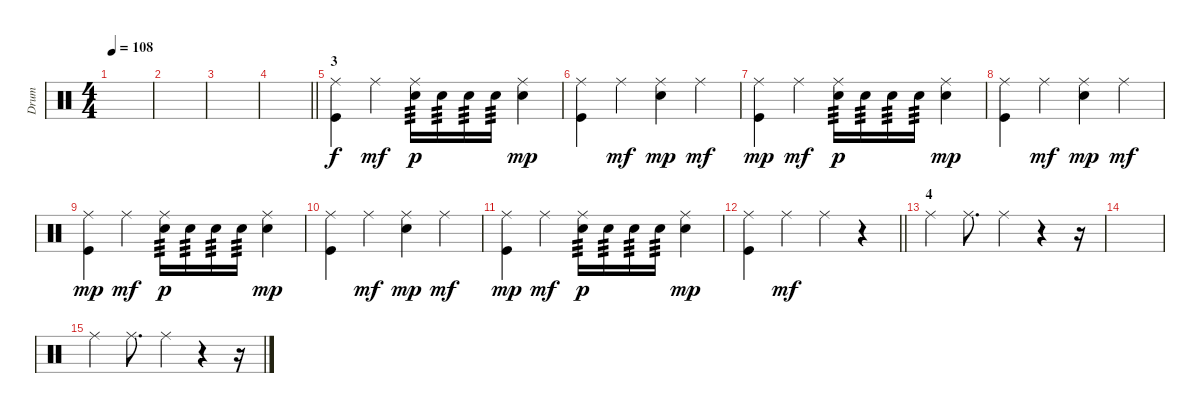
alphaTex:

\track ("Drum" "Drum") {instrument percussion}
\staff {score}
\articulation defaults
\ts (4 4)
\tempo 108
\clef neutral
\ks c
|
|
|
\barLineRight lightlight
|
\section ("" "3")
("Ride (middle)" "Kick (hit)").4 "Ride (middle)".4{dy mf} ("Ride (middle)" "Electric Snare (hit)").16{tp 3 dy p} "Electric Snare (hit)".16{tp 3} "Electric Snare (hit)".16{tp 3} "Electric Snare (hit)".16{tp 3} ("Ride (middle)" "Electric Snare (hit)").4{dy mp} |
("Ride (middle)" "Kick (hit)").4 "Ride (middle)".4{dy mf} ("Ride (middle)" "Electric Snare (hit)").4{dy mp} "Ride (middle)".4{dy mf} |
("Ride (middle)" "Kick (hit)").4{dy mp} "Ride (middle)".4{dy mf} ("Ride (middle)" "Electric Snare (hit)").16{tp 3 dy p} "Electric Snare (hit)".16{tp 3} "Electric Snare (hit)".16{tp 3} "Electric Snare (hit)".16{tp 3} ("Ride (middle)" "Electric Snare (hit)").4{dy mp} |
("Ride (middle)" "Kick (hit)").4 "Ride (middle)".4{dy mf} ("Ride (middle)" "Electric Snare (hit)").4{dy mp} "Ride (middle)".4{dy mf} |
("Ride (middle)" "Kick (hit)").4{dy mp} "Ride (middle)".4{dy mf} ("Ride (middle)" "Electric Snare (hit)").16{tp 3 dy p} "Electric Snare (hit)".16{tp 3} "Electric Snare (hit)".16{tp 3} "Electric Snare (hit)".16{tp 3} ("Ride (middle)" "Electric Snare (hit)").4{dy mp} |
("Ride (middle)" "Kick (hit)").4 "Ride (middle)".4{dy mf} ("Ride (middle)" "Electric Snare (hit)").4{dy mp} "Ride (middle)".4{dy mf} |
("Ride (middle)" "Kick (hit)").4{dy mp} "Ride (middle)".4{dy mf} ("Ride (middle)" "Electric Snare (hit)").16{tp 3 dy p} "Electric Snare (hit)".16{tp 3} "Electric Snare (hit)".16{tp 3} "Electric Snare (hit)".16{tp 3} ("Ride (middle)" "Electric Snare (hit)").4{dy mp} |
\barLineRight lightlight
("Ride (middle)" "Kick (hit)").4 "Ride (middle)".4{dy mf} "Ride (middle)".4 r.4 |
\section ("" "4")
"Ride (middle)".4 "Ride (middle)".8{d} "Ride (middle)".4 r.4 r.16 |
|
"Ride (middle)".4 "Ride (middle)".8{d} "Ride (middle)".4 r.4 r.16
